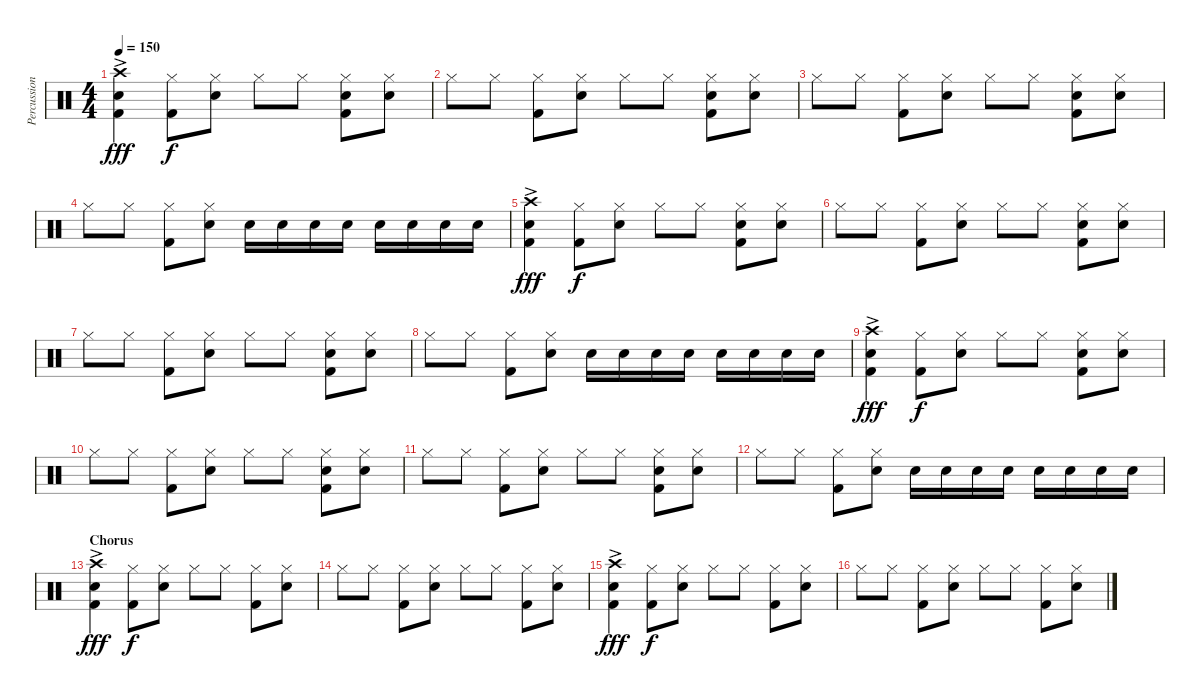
\track ("Percussion" "Percussion") {instrument percussion}
\staff {score}
\articulation defaults
\ts (4 4)
\tempo 150
\clef neutral
\ks c
("Crash high (hit)"{ac} "Kick (hit) 2"{ac} "Electric Snare (hit)"{ac}).4{dy fff} ("Hi-Hat (closed)" "Kick (hit) 2").8{dy f} ("Hi-Hat (closed)" "Electric Snare (hit)").8 "Hi-Hat (closed)".8 "Hi-Hat (closed)".8 ("Hi-Hat (closed)" "Electric Snare (hit)" "Kick (hit) 2").8 ("Hi-Hat (closed)" "Electric Snare (hit)").8 |
"Hi-Hat (closed)".8 "Hi-Hat (closed)".8 ("Hi-Hat (closed)" "Kick (hit) 2").8 ("Hi-Hat (closed)" "Electric Snare (hit)").8 "Hi-Hat (closed)".8 "Hi-Hat (closed)".8 ("Hi-Hat (closed)" "Electric Snare (hit)" "Kick (hit) 2").8 ("Hi-Hat (closed)" "Electric Snare (hit)").8 |
"Hi-Hat (closed)".8 "Hi-Hat (closed)".8 ("Hi-Hat (closed)" "Kick (hit) 2").8 ("Hi-Hat (closed)" "Electric Snare (hit)").8 "Hi-Hat (closed)".8 "Hi-Hat (closed)".8 ("Hi-Hat (closed)" "Electric Snare (hit)" "Kick (hit) 2").8 ("Hi-Hat (closed)" "Electric Snare (hit)").8 |
"Hi-Hat (closed)".8 "Hi-Hat (closed)".8 ("Hi-Hat (closed)" "Kick (hit) 2").8 ("Hi-Hat (closed)" "Electric Snare (hit)").8 "Electric Snare (hit)".16 "Electric Snare (hit)".16 "Electric Snare (hit)".16 "Electric Snare (hit)".16 "Electric Snare (hit)".16 "Electric Snare (hit)".16 "Electric Snare (hit)".16 "Electric Snare (hit)".16 |
("Crash high (hit)"{ac} "Kick (hit) 2"{ac} "Electric Snare (hit)"{ac}).4{dy fff} ("Hi-Hat (closed)" "Kick (hit) 2").8{dy f} ("Hi-Hat (closed)" "Electric Snare (hit)").8 "Hi-Hat (closed)".8 "Hi-Hat (closed)".8 ("Hi-Hat (closed)" "Electric Snare (hit)" "Kick (hit) 2").8 ("Hi-Hat (closed)" "Electric Snare (hit)").8 |
"Hi-Hat (closed)".8 "Hi-Hat (closed)".8 ("Hi-Hat (closed)" "Kick (hit) 2").8 ("Hi-Hat (closed)" "Electric Snare (hit)").8 "Hi-Hat (closed)".8 "Hi-Hat (closed)".8 ("Hi-Hat (closed)" "Electric Snare (hit)" "Kick (hit) 2").8 ("Hi-Hat (closed)" "Electric Snare (hit)").8 |
"Hi-Hat (closed)".8 "Hi-Hat (closed)".8 ("Hi-Hat (closed)" "Kick (hit) 2").8 ("Hi-Hat (closed)" "Electric Snare (hit)").8 "Hi-Hat (closed)".8 "Hi-Hat (closed)".8 ("Hi-Hat (closed)" "Electric Snare (hit)" "Kick (hit) 2").8 ("Hi-Hat (closed)" "Electric Snare (hit)").8 |
"Hi-Hat (closed)".8 "Hi-Hat (closed)".8 ("Hi-Hat (closed)" "Kick (hit) 2").8 ("Hi-Hat (closed)" "Electric Snare (hit)").8 "Electric Snare (hit)".16 "Electric Snare (hit)".16 "Electric Snare (hit)".16 "Electric Snare (hit)".16 "Electric Snare (hit)".16 "Electric Snare (hit)".16 "Electric Snare (hit)".16 "Electric Snare (hit)".16 |
("Crash high (hit)"{ac} "Kick (hit) 2"{ac} "Electric Snare (hit)"{ac}).4{dy fff} ("Hi-Hat (closed)" "Kick (hit) 2").8{dy f} ("Hi-Hat (closed)" "Electric Snare (hit)").8 "Hi-Hat (closed)".8 "Hi-Hat (closed)".8 ("Hi-Hat (closed)" "Electric Snare (hit)" "Kick (hit) 2").8 ("Hi-Hat (closed)" "Electric Snare (hit)").8 |
"Hi-Hat (closed)".8 "Hi-Hat (closed)".8 ("Hi-Hat (closed)" "Kick (hit) 2").8 ("Hi-Hat (closed)" "Electric Snare (hit)").8 "Hi-Hat (closed)".8 "Hi-Hat (closed)".8 ("Hi-Hat (closed)" "Electric Snare (hit)" "Kick (hit) 2").8 ("Hi-Hat (closed)" "Electric Snare (hit)").8 |
"Hi-Hat (closed)".8 "Hi-Hat (closed)".8 ("Hi-Hat (closed)" "Kick (hit) 2").8 ("Hi-Hat (closed)" "Electric Snare (hit)").8 "Hi-Hat (closed)".8 "Hi-Hat (closed)".8 ("Hi-Hat (closed)" "Electric Snare (hit)" "Kick (hit) 2").8 ("Hi-Hat (closed)" "Electric Snare (hit)").8 |
"Hi-Hat (closed)".8 "Hi-Hat (closed)".8 ("Hi-Hat (closed)" "Kick (hit) 2").8 ("Hi-Hat (closed)" "Electric Snare (hit)").8 "Electric Snare (hit)".16 "Electric Snare (hit)".16 "Electric Snare (hit)".16 "Electric Snare (hit)".16 "Electric Snare (hit)".16 "Electric Snare (hit)".16 "Electric Snare (hit)".16 "Electric Snare (hit)".16 |
\section ("" "Chorus")
("Crash high (hit)"{ac} "Kick (hit) 2"{ac} "Electric Snare (hit)"{ac}).4{dy fff} ("Hi-Hat (closed)" "Kick (hit) 2").8{dy f} ("Hi-Hat (closed)" "Electric Snare (hit)").8 "Hi-Hat (closed)".8 "Hi-Hat (closed)".8 ("Hi-Hat (closed)" "Kick (hit) 2").8 ("Hi-Hat (closed)" "Electric Snare (hit)").8 |
"Hi-Hat (closed)".8 "Hi-Hat (closed)".8 ("Hi-Hat (closed)" "Kick (hit) 2").8 ("Hi-Hat (closed)" "Electric Snare (hit)").8 "Hi-Hat (closed)".8 "Hi-Hat (closed)".8 ("Hi-Hat (closed)" "Kick (hit) 2").8 ("Hi-Hat (closed)" "Electric Snare (hit)").8 |
("Crash high (hit)"{ac} "Kick (hit) 2"{ac} "Electric Snare (hit)"{ac}).4{dy fff} ("Hi-Hat (closed)" "Kick (hit) 2").8{dy f} ("Hi-Hat (closed)" "Electric Snare (hit)").8 "Hi-Hat (closed)".8 "Hi-Hat (closed)".8 ("Hi-Hat (closed)" "Kick (hit) 2").8 ("Hi-Hat (closed)" "Electric Snare (hit)").8 |
"Hi-Hat (closed)".8 "Hi-Hat (closed)".8 ("Hi-Hat (closed)" "Kick (hit) 2").8 ("Hi-Hat (closed)" "Electric Snare (hit)").8 "Hi-Hat (closed)".8 "Hi-Hat (closed)".8 ("Hi-Hat (closed)" "Kick (hit) 2").8 ("Hi-Hat (closed)" "Electric Snare (hit)").8
